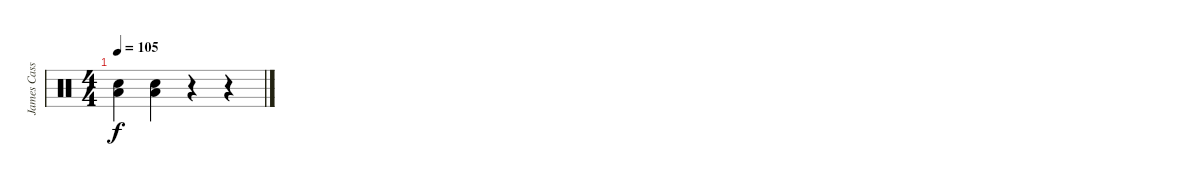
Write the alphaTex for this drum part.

\track ("James Cassells (Drums)" "James Cass") {instrument percussion}
\staff {score}
\articulation defaults
\ts (4 4)
\tempo 105
\clef neutral
\ks c
("Snare (hit) 2" "Low Floor Tom (hit)").4{dy f} ("Snare (hit) 2" "Low Floor Tom (hit)").4 r.4 r.4
